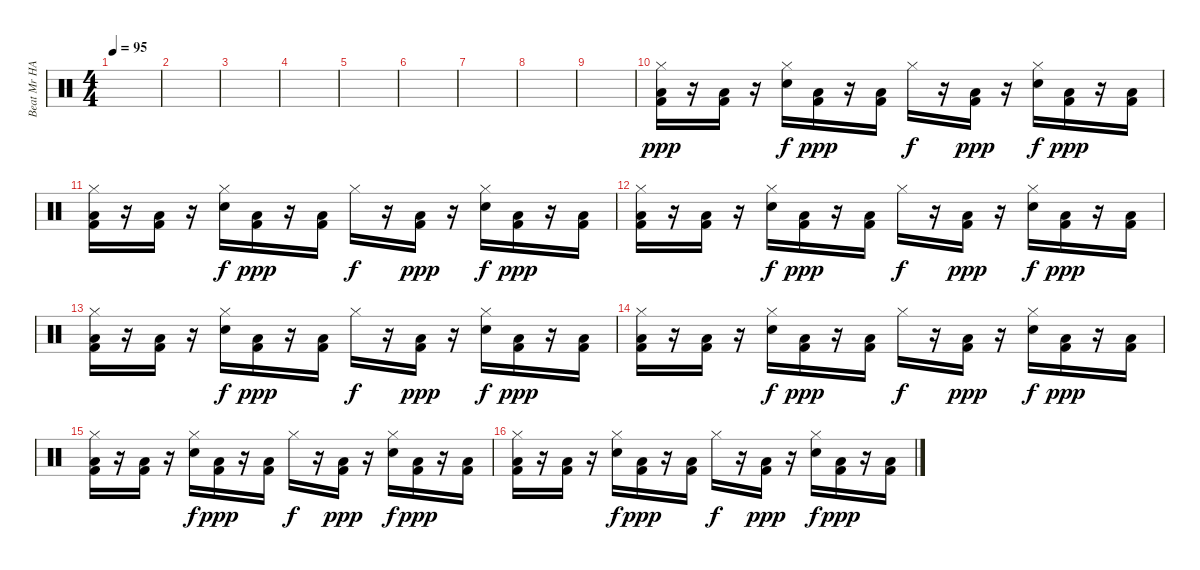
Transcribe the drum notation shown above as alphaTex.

\track ("Beat Mr HAHN" "Beat Mr HA") {instrument percussion}
\staff {score}
\articulation defaults
\ts (4 4)
\tempo 95
\clef neutral
\ks c
|
|
|
|
|
|
|
|
|
("Hi-Hat (closed)" "Low Floor Tom (hit)" "Kick (hit) 2").16{dy ppp} r.16 ("Low Floor Tom (hit)" "Kick (hit) 2").16 r.16 ("Hi-Hat (closed)" "Electric Snare (hit)").16{dy f} ("Low Floor Tom (hit)" "Kick (hit) 2").16{dy ppp} r.16 ("Low Floor Tom (hit)" "Kick (hit) 2").16 "Hi-Hat (closed)".16{dy f} r.16 ("Low Floor Tom (hit)" "Kick (hit) 2").16{dy ppp} r.16 ("Hi-Hat (closed)" "Electric Snare (hit)").16{dy f} ("Low Floor Tom (hit)" "Kick (hit) 2").16{dy ppp} r.16 ("Low Floor Tom (hit)" "Kick (hit) 2").16 |
("Hi-Hat (closed)" "Low Floor Tom (hit)" "Kick (hit) 2").16 r.16 ("Low Floor Tom (hit)" "Kick (hit) 2").16 r.16 ("Hi-Hat (closed)" "Electric Snare (hit)").16{dy f} ("Low Floor Tom (hit)" "Kick (hit) 2").16{dy ppp} r.16 ("Low Floor Tom (hit)" "Kick (hit) 2").16 "Hi-Hat (closed)".16{dy f} r.16 ("Low Floor Tom (hit)" "Kick (hit) 2").16{dy ppp} r.16 ("Hi-Hat (closed)" "Electric Snare (hit)").16{dy f} ("Low Floor Tom (hit)" "Kick (hit) 2").16{dy ppp} r.16 ("Low Floor Tom (hit)" "Kick (hit) 2").16 |
("Hi-Hat (closed)" "Low Floor Tom (hit)" "Kick (hit) 2").16 r.16 ("Low Floor Tom (hit)" "Kick (hit) 2").16 r.16 ("Hi-Hat (closed)" "Electric Snare (hit)").16{dy f} ("Low Floor Tom (hit)" "Kick (hit) 2").16{dy ppp} r.16 ("Low Floor Tom (hit)" "Kick (hit) 2").16 "Hi-Hat (closed)".16{dy f} r.16 ("Low Floor Tom (hit)" "Kick (hit) 2").16{dy ppp} r.16 ("Hi-Hat (closed)" "Electric Snare (hit)").16{dy f} ("Low Floor Tom (hit)" "Kick (hit) 2").16{dy ppp} r.16 ("Low Floor Tom (hit)" "Kick (hit) 2").16 |
("Hi-Hat (closed)" "Low Floor Tom (hit)" "Kick (hit) 2").16 r.16 ("Low Floor Tom (hit)" "Kick (hit) 2").16 r.16 ("Hi-Hat (closed)" "Electric Snare (hit)").16{dy f} ("Low Floor Tom (hit)" "Kick (hit) 2").16{dy ppp} r.16 ("Low Floor Tom (hit)" "Kick (hit) 2").16 "Hi-Hat (closed)".16{dy f} r.16 ("Low Floor Tom (hit)" "Kick (hit) 2").16{dy ppp} r.16 ("Hi-Hat (closed)" "Electric Snare (hit)").16{dy f} ("Low Floor Tom (hit)" "Kick (hit) 2").16{dy ppp} r.16 ("Low Floor Tom (hit)" "Kick (hit) 2").16 |
("Hi-Hat (closed)" "Low Floor Tom (hit)" "Kick (hit) 2").16 r.16 ("Low Floor Tom (hit)" "Kick (hit) 2").16 r.16 ("Hi-Hat (closed)" "Electric Snare (hit)").16{dy f} ("Low Floor Tom (hit)" "Kick (hit) 2").16{dy ppp} r.16 ("Low Floor Tom (hit)" "Kick (hit) 2").16 "Hi-Hat (closed)".16{dy f} r.16 ("Low Floor Tom (hit)" "Kick (hit) 2").16{dy ppp} r.16 ("Hi-Hat (closed)" "Electric Snare (hit)").16{dy f} ("Low Floor Tom (hit)" "Kick (hit) 2").16{dy ppp} r.16 ("Low Floor Tom (hit)" "Kick (hit) 2").16 |
("Hi-Hat (closed)" "Low Floor Tom (hit)" "Kick (hit) 2").16 r.16 ("Low Floor Tom (hit)" "Kick (hit) 2").16 r.16 ("Hi-Hat (closed)" "Electric Snare (hit)").16{dy f} ("Low Floor Tom (hit)" "Kick (hit) 2").16{dy ppp} r.16 ("Low Floor Tom (hit)" "Kick (hit) 2").16 "Hi-Hat (closed)".16{dy f} r.16 ("Low Floor Tom (hit)" "Kick (hit) 2").16{dy ppp} r.16 ("Hi-Hat (closed)" "Electric Snare (hit)").16{dy f} ("Low Floor Tom (hit)" "Kick (hit) 2").16{dy ppp} r.16 ("Low Floor Tom (hit)" "Kick (hit) 2").16 |
("Hi-Hat (closed)" "Low Floor Tom (hit)" "Kick (hit) 2").16 r.16 ("Low Floor Tom (hit)" "Kick (hit) 2").16 r.16 ("Hi-Hat (closed)" "Electric Snare (hit)").16{dy f} ("Low Floor Tom (hit)" "Kick (hit) 2").16{dy ppp} r.16 ("Low Floor Tom (hit)" "Kick (hit) 2").16 "Hi-Hat (closed)".16{dy f} r.16 ("Low Floor Tom (hit)" "Kick (hit) 2").16{dy ppp} r.16 ("Hi-Hat (closed)" "Electric Snare (hit)").16{dy f} ("Low Floor Tom (hit)" "Kick (hit) 2").16{dy ppp} r.16 ("Low Floor Tom (hit)" "Kick (hit) 2").16
